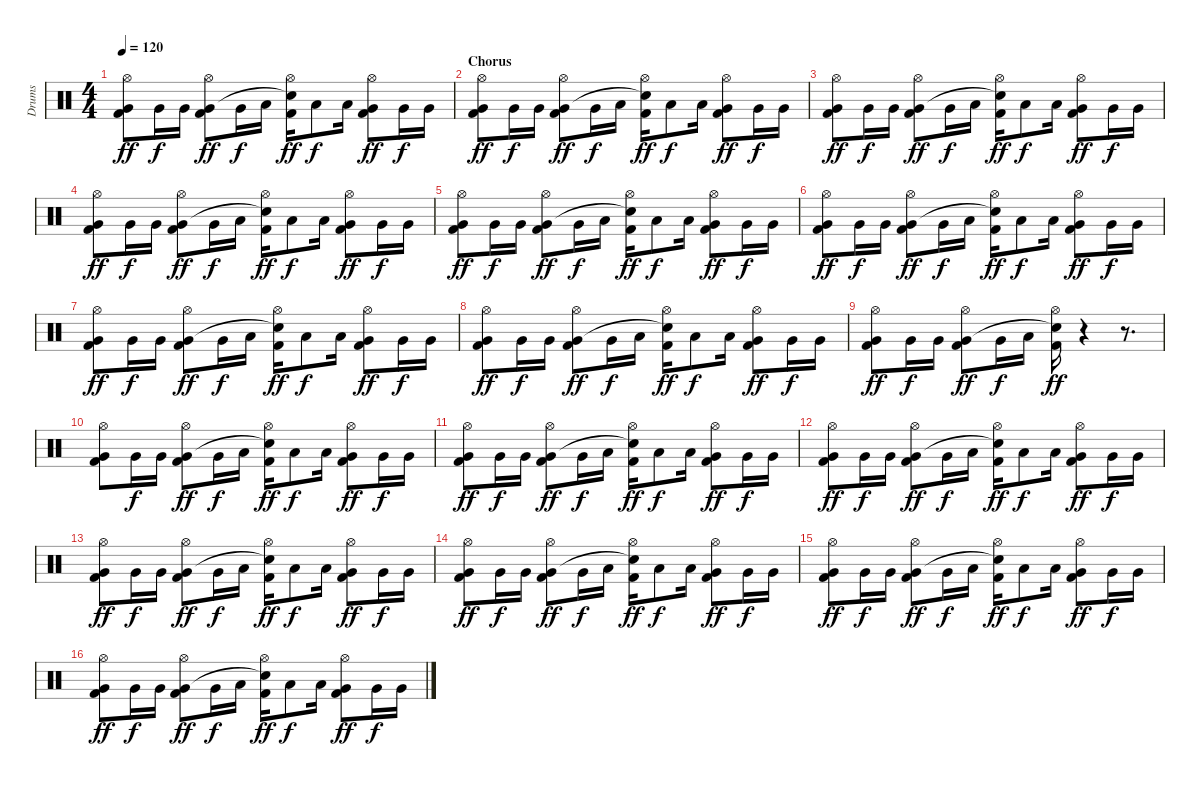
\track ("Drums" "Drums") {instrument percussion}
\staff {score}
\articulation defaults
\ts (4 4)
\tempo 120
\clef neutral
\ks c
("Hi-Hat (open)" "Very Low Tom (hit)" "Kick (hit) 2").8{dy ff} "Very Low Tom (hit)".16{dy f} "Very Low Tom (hit)".16 ("Hi-Hat (open)" "Very Low Tom (hit)" "Kick (hit) 2").8{dy ff} "Very Low Tom (hit)".16{dy f} "Low Tom (hit)".16 ("Hi-Hat (open)" "Snare (hit)"{t} "Kick (hit) 2").16{dy ff} "Low Tom (hit)".8{dy f} "Low Tom (hit)".16 ("Hi-Hat (open)" "Very Low Tom (hit)" "Kick (hit) 2").8{dy ff} "Very Low Tom (hit)".16{dy f} "Very Low Tom (hit)".16 |
\section ("" "Chorus")
("Hi-Hat (open)" "Very Low Tom (hit)" "Kick (hit) 2").8{dy ff} "Very Low Tom (hit)".16{dy f} "Very Low Tom (hit)".16 ("Hi-Hat (open)" "Very Low Tom (hit)" "Kick (hit) 2").8{dy ff} "Very Low Tom (hit)".16{dy f} "Low Tom (hit)".16 ("Hi-Hat (open)" "Snare (hit)"{t} "Kick (hit) 2").16{dy ff} "Low Tom (hit)".8{dy f} "Low Tom (hit)".16 ("Hi-Hat (open)" "Very Low Tom (hit)" "Kick (hit) 2").8{dy ff} "Very Low Tom (hit)".16{dy f} "Very Low Tom (hit)".16 |
("Hi-Hat (open)" "Very Low Tom (hit)" "Kick (hit) 2").8{dy ff} "Very Low Tom (hit)".16{dy f} "Very Low Tom (hit)".16 ("Hi-Hat (open)" "Very Low Tom (hit)" "Kick (hit) 2").8{dy ff} "Very Low Tom (hit)".16{dy f} "Low Tom (hit)".16 ("Hi-Hat (open)" "Snare (hit)"{t} "Kick (hit) 2").16{dy ff} "Low Tom (hit)".8{dy f} "Low Tom (hit)".16 ("Hi-Hat (open)" "Very Low Tom (hit)" "Kick (hit) 2").8{dy ff} "Very Low Tom (hit)".16{dy f} "Very Low Tom (hit)".16 |
("Hi-Hat (open)" "Very Low Tom (hit)" "Kick (hit) 2").8{dy ff} "Very Low Tom (hit)".16{dy f} "Very Low Tom (hit)".16 ("Hi-Hat (open)" "Very Low Tom (hit)" "Kick (hit) 2").8{dy ff} "Very Low Tom (hit)".16{dy f} "Low Tom (hit)".16 ("Hi-Hat (open)" "Snare (hit)"{t} "Kick (hit) 2").16{dy ff} "Low Tom (hit)".8{dy f} "Low Tom (hit)".16 ("Hi-Hat (open)" "Very Low Tom (hit)" "Kick (hit) 2").8{dy ff} "Very Low Tom (hit)".16{dy f} "Very Low Tom (hit)".16 |
("Hi-Hat (open)" "Very Low Tom (hit)" "Kick (hit) 2").8{dy ff} "Very Low Tom (hit)".16{dy f} "Very Low Tom (hit)".16 ("Hi-Hat (open)" "Very Low Tom (hit)" "Kick (hit) 2").8{dy ff} "Very Low Tom (hit)".16{dy f} "Low Tom (hit)".16 ("Hi-Hat (open)" "Snare (hit)"{t} "Kick (hit) 2").16{dy ff} "Low Tom (hit)".8{dy f} "Low Tom (hit)".16 ("Hi-Hat (open)" "Very Low Tom (hit)" "Kick (hit) 2").8{dy ff} "Very Low Tom (hit)".16{dy f} "Very Low Tom (hit)".16 |
("Hi-Hat (open)" "Very Low Tom (hit)" "Kick (hit) 2").8{dy ff} "Very Low Tom (hit)".16{dy f} "Very Low Tom (hit)".16 ("Hi-Hat (open)" "Very Low Tom (hit)" "Kick (hit) 2").8{dy ff} "Very Low Tom (hit)".16{dy f} "Low Tom (hit)".16 ("Hi-Hat (open)" "Snare (hit)"{t} "Kick (hit) 2").16{dy ff} "Low Tom (hit)".8{dy f} "Low Tom (hit)".16 ("Hi-Hat (open)" "Very Low Tom (hit)" "Kick (hit) 2").8{dy ff} "Very Low Tom (hit)".16{dy f} "Very Low Tom (hit)".16 |
("Hi-Hat (open)" "Very Low Tom (hit)" "Kick (hit) 2").8{dy ff} "Very Low Tom (hit)".16{dy f} "Very Low Tom (hit)".16 ("Hi-Hat (open)" "Very Low Tom (hit)" "Kick (hit) 2").8{dy ff} "Very Low Tom (hit)".16{dy f} "Low Tom (hit)".16 ("Hi-Hat (open)" "Snare (hit)"{t} "Kick (hit) 2").16{dy ff} "Low Tom (hit)".8{dy f} "Low Tom (hit)".16 ("Hi-Hat (open)" "Very Low Tom (hit)" "Kick (hit) 2").8{dy ff} "Very Low Tom (hit)".16{dy f} "Very Low Tom (hit)".16 |
("Hi-Hat (open)" "Very Low Tom (hit)" "Kick (hit) 2").8{dy ff} "Very Low Tom (hit)".16{dy f} "Very Low Tom (hit)".16 ("Hi-Hat (open)" "Very Low Tom (hit)" "Kick (hit) 2").8{dy ff} "Very Low Tom (hit)".16{dy f} "Low Tom (hit)".16 ("Hi-Hat (open)" "Snare (hit)"{t} "Kick (hit) 2").16{dy ff} "Low Tom (hit)".8{dy f} "Low Tom (hit)".16 ("Hi-Hat (open)" "Very Low Tom (hit)" "Kick (hit) 2").8{dy ff} "Very Low Tom (hit)".16{dy f} "Very Low Tom (hit)".16 |
("Hi-Hat (open)" "Very Low Tom (hit)" "Kick (hit) 2").8{dy ff} "Very Low Tom (hit)".16{dy f} "Very Low Tom (hit)".16 ("Hi-Hat (open)" "Very Low Tom (hit)" "Kick (hit) 2").8{dy ff} "Very Low Tom (hit)".16{dy f} "Low Tom (hit)".16 ("Hi-Hat (open)" "Snare (hit)"{t} "Kick (hit) 2").16{dy ff} r.4 r.8{d} |
("Hi-Hat (open)" "Very Low Tom (hit)" "Kick (hit) 2").8 "Very Low Tom (hit)".16{dy f} "Very Low Tom (hit)".16 ("Hi-Hat (open)" "Very Low Tom (hit)" "Kick (hit) 2").8{dy ff} "Very Low Tom (hit)".16{dy f} "Low Tom (hit)".16 ("Hi-Hat (open)" "Snare (hit)"{t} "Kick (hit) 2").16{dy ff} "Low Tom (hit)".8{dy f} "Low Tom (hit)".16 ("Hi-Hat (open)" "Very Low Tom (hit)" "Kick (hit) 2").8{dy ff} "Very Low Tom (hit)".16{dy f} "Very Low Tom (hit)".16 |
("Hi-Hat (open)" "Very Low Tom (hit)" "Kick (hit) 2").8{dy ff} "Very Low Tom (hit)".16{dy f} "Very Low Tom (hit)".16 ("Hi-Hat (open)" "Very Low Tom (hit)" "Kick (hit) 2").8{dy ff} "Very Low Tom (hit)".16{dy f} "Low Tom (hit)".16 ("Hi-Hat (open)" "Snare (hit)"{t} "Kick (hit) 2").16{dy ff} "Low Tom (hit)".8{dy f} "Low Tom (hit)".16 ("Hi-Hat (open)" "Very Low Tom (hit)" "Kick (hit) 2").8{dy ff} "Very Low Tom (hit)".16{dy f} "Very Low Tom (hit)".16 |
("Hi-Hat (open)" "Very Low Tom (hit)" "Kick (hit) 2").8{dy ff} "Very Low Tom (hit)".16{dy f} "Very Low Tom (hit)".16 ("Hi-Hat (open)" "Very Low Tom (hit)" "Kick (hit) 2").8{dy ff} "Very Low Tom (hit)".16{dy f} "Low Tom (hit)".16 ("Hi-Hat (open)" "Snare (hit)"{t} "Kick (hit) 2").16{dy ff} "Low Tom (hit)".8{dy f} "Low Tom (hit)".16 ("Hi-Hat (open)" "Very Low Tom (hit)" "Kick (hit) 2").8{dy ff} "Very Low Tom (hit)".16{dy f} "Very Low Tom (hit)".16 |
("Hi-Hat (open)" "Very Low Tom (hit)" "Kick (hit) 2").8{dy ff} "Very Low Tom (hit)".16{dy f} "Very Low Tom (hit)".16 ("Hi-Hat (open)" "Very Low Tom (hit)" "Kick (hit) 2").8{dy ff} "Very Low Tom (hit)".16{dy f} "Low Tom (hit)".16 ("Hi-Hat (open)" "Snare (hit)"{t} "Kick (hit) 2").16{dy ff} "Low Tom (hit)".8{dy f} "Low Tom (hit)".16 ("Hi-Hat (open)" "Very Low Tom (hit)" "Kick (hit) 2").8{dy ff} "Very Low Tom (hit)".16{dy f} "Very Low Tom (hit)".16 |
("Hi-Hat (open)" "Very Low Tom (hit)" "Kick (hit) 2").8{dy ff} "Very Low Tom (hit)".16{dy f} "Very Low Tom (hit)".16 ("Hi-Hat (open)" "Very Low Tom (hit)" "Kick (hit) 2").8{dy ff} "Very Low Tom (hit)".16{dy f} "Low Tom (hit)".16 ("Hi-Hat (open)" "Snare (hit)"{t} "Kick (hit) 2").16{dy ff} "Low Tom (hit)".8{dy f} "Low Tom (hit)".16 ("Hi-Hat (open)" "Very Low Tom (hit)" "Kick (hit) 2").8{dy ff} "Very Low Tom (hit)".16{dy f} "Very Low Tom (hit)".16 |
("Hi-Hat (open)" "Very Low Tom (hit)" "Kick (hit) 2").8{dy ff} "Very Low Tom (hit)".16{dy f} "Very Low Tom (hit)".16 ("Hi-Hat (open)" "Very Low Tom (hit)" "Kick (hit) 2").8{dy ff} "Very Low Tom (hit)".16{dy f} "Low Tom (hit)".16 ("Hi-Hat (open)" "Snare (hit)"{t} "Kick (hit) 2").16{dy ff} "Low Tom (hit)".8{dy f} "Low Tom (hit)".16 ("Hi-Hat (open)" "Very Low Tom (hit)" "Kick (hit) 2").8{dy ff} "Very Low Tom (hit)".16{dy f} "Very Low Tom (hit)".16 |
("Hi-Hat (open)" "Very Low Tom (hit)" "Kick (hit) 2").8{dy ff} "Very Low Tom (hit)".16{dy f} "Very Low Tom (hit)".16 ("Hi-Hat (open)" "Very Low Tom (hit)" "Kick (hit) 2").8{dy ff} "Very Low Tom (hit)".16{dy f} "Low Tom (hit)".16 ("Hi-Hat (open)" "Snare (hit)"{t} "Kick (hit) 2").16{dy ff} "Low Tom (hit)".8{dy f} "Low Tom (hit)".16 ("Hi-Hat (open)" "Very Low Tom (hit)" "Kick (hit) 2").8{dy ff} "Very Low Tom (hit)".16{dy f} "Very Low Tom (hit)".16
